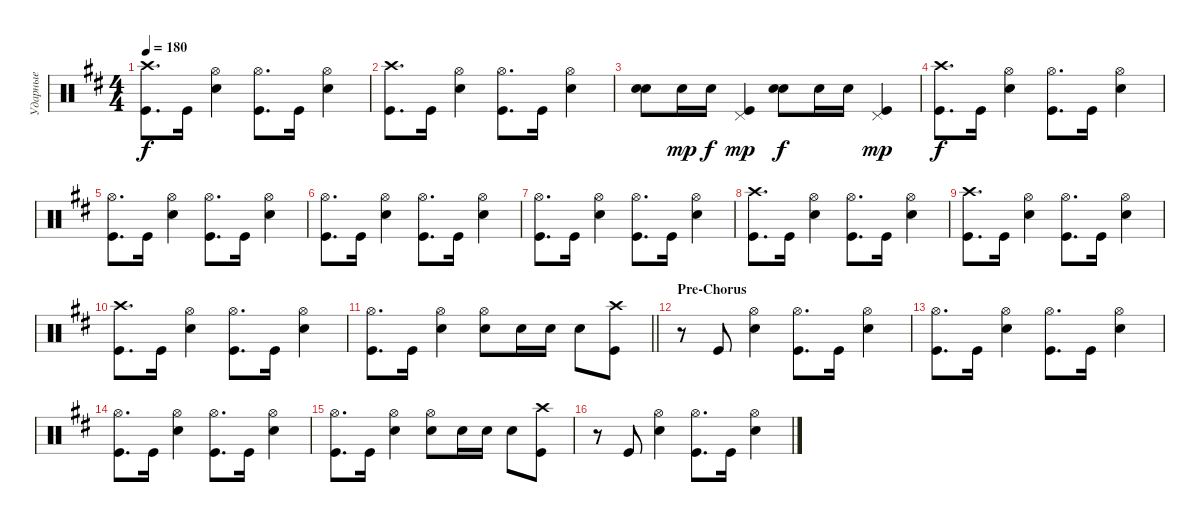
\track ("Ударные" "Ударные") {instrument percussion}
\staff {score}
\articulation defaults
\ts (4 4)
\tempo 180
\clef neutral
\ks bminor
("Crash high (hit)" "Kick (hit)").8{d dy f} "Kick (hit)".16 ("Hi-Hat (open)" "Snare (hit) 2").4 ("Kick (hit)" "Hi-Hat (open)").8{d} "Kick (hit)".16 ("Snare (hit) 2" "Hi-Hat (open)").4 |
("Crash high (hit)" "Kick (hit)").8{d} "Kick (hit)".16 ("Hi-Hat (open)" "Snare (hit) 2").4 ("Kick (hit)" "Hi-Hat (open)").8{d} "Kick (hit)".16 ("Snare (hit) 2" "Hi-Hat (open)").4 |
("Snare (hit) 2" "Snare (hit) 2").8{bd 240} "Snare (hit) 2".16{dy mp} "Snare (hit) 2".16{dy f} ("Kick (hit)" "Pedal Hi-Hat (hit)").4{dy mp} ("Snare (hit) 2" "Snare (hit) 2").8{bd 240 dy f} "Snare (hit) 2".16 "Snare (hit) 2".16 ("Kick (hit)" "Pedal Hi-Hat (hit)").4{dy mp} |
("Crash high (hit)" "Kick (hit)").8{d dy f} "Kick (hit)".16 ("Hi-Hat (open)" "Snare (hit) 2").4 ("Kick (hit)" "Hi-Hat (open)").8{d} "Kick (hit)".16 ("Snare (hit) 2" "Hi-Hat (open)").4 |
("Hi-Hat (open)" "Kick (hit)").8{d} "Kick (hit)".16 ("Hi-Hat (open)" "Snare (hit) 2").4 ("Kick (hit)" "Hi-Hat (open)").8{d} "Kick (hit)".16 ("Snare (hit) 2" "Hi-Hat (open)").4 |
("Hi-Hat (open)" "Kick (hit)").8{d} "Kick (hit)".16 ("Hi-Hat (open)" "Snare (hit) 2").4 ("Kick (hit)" "Hi-Hat (open)").8{d} "Kick (hit)".16 ("Snare (hit) 2" "Hi-Hat (open)").4 |
("Hi-Hat (open)" "Kick (hit)").8{d} "Kick (hit)".16 ("Hi-Hat (open)" "Snare (hit) 2").4 ("Kick (hit)" "Hi-Hat (open)").8{d} "Kick (hit)".16 ("Snare (hit) 2" "Hi-Hat (open)").4 |
("Crash high (hit)" "Kick (hit)").8{d} "Kick (hit)".16 ("Hi-Hat (open)" "Snare (hit) 2").4 ("Kick (hit)" "Hi-Hat (open)").8{d} "Kick (hit)".16 ("Snare (hit) 2" "Hi-Hat (open)").4 |
("Crash high (hit)" "Kick (hit)").8{d} "Kick (hit)".16 ("Hi-Hat (open)" "Snare (hit) 2").4 ("Kick (hit)" "Hi-Hat (open)").8{d} "Kick (hit)".16 ("Snare (hit) 2" "Hi-Hat (open)").4 |
("Crash high (hit)" "Kick (hit)").8{d} "Kick (hit)".16 ("Hi-Hat (open)" "Snare (hit) 2").4 ("Kick (hit)" "Hi-Hat (open)").8{d} "Kick (hit)".16 ("Snare (hit) 2" "Hi-Hat (open)").4 |
\barLineRight lightlight
("Hi-Hat (open)" "Kick (hit)").8{d} "Kick (hit)".16 ("Hi-Hat (open)" "Snare (hit) 2").4 ("Hi-Hat (open)" "Snare (hit) 2").8{bd 480} "Snare (hit) 2".16 "Snare (hit) 2".16 "Snare (hit) 2".8 ("Kick (hit)" "Crash high (hit)").8 |
\section ("" "Pre-Chorus")
r.8 "Kick (hit)".8 ("Hi-Hat (open)" "Snare (hit) 2").4 ("Kick (hit)" "Hi-Hat (open)").8{d} "Kick (hit)".16 ("Snare (hit) 2" "Hi-Hat (open)").4 |
("Hi-Hat (open)" "Kick (hit)").8{d} "Kick (hit)".16 ("Hi-Hat (open)" "Snare (hit) 2").4 ("Kick (hit)" "Hi-Hat (open)").8{d} "Kick (hit)".16 ("Snare (hit) 2" "Hi-Hat (open)").4 |
("Hi-Hat (open)" "Kick (hit)").8{d} "Kick (hit)".16 ("Hi-Hat (open)" "Snare (hit) 2").4 ("Kick (hit)" "Hi-Hat (open)").8{d} "Kick (hit)".16 ("Snare (hit) 2" "Hi-Hat (open)").4 |
("Hi-Hat (open)" "Kick (hit)").8{d} "Kick (hit)".16 ("Hi-Hat (open)" "Snare (hit) 2").4 ("Hi-Hat (open)" "Snare (hit) 2").8{bd 480} "Snare (hit) 2".16 "Snare (hit) 2".16 "Snare (hit) 2".8 ("Kick (hit)" "Crash high (hit)").8 |
r.8 "Kick (hit)".8 ("Hi-Hat (open)" "Snare (hit) 2").4 ("Kick (hit)" "Hi-Hat (open)").8{d} "Kick (hit)".16 ("Snare (hit) 2" "Hi-Hat (open)").4
